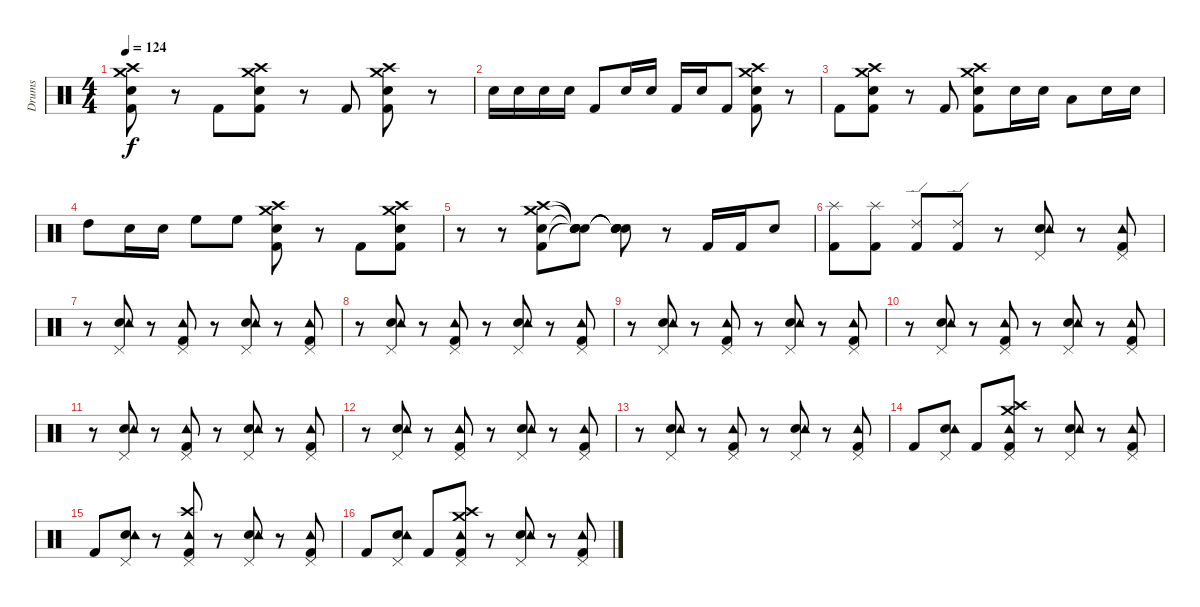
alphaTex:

\track ("Drums" "Drums") {instrument percussion}
\staff {score}
\articulation defaults
\ts (4 4)
\tempo 124
\clef neutral
\ks c
("Kick (hit) 2" "Snare (hit) 2" "Crash high (hit)" "Crash medium (hit)").8{dy f} r.8 "Kick (hit) 2".8 ("Kick (hit) 2" "Snare (hit) 2" "Crash high (hit)" "Crash medium (hit)").8 r.8 "Kick (hit) 2".8 ("Kick (hit) 2" "Snare (hit) 2" "Crash high (hit)" "Crash medium (hit)").8 r.8 |
"Snare (hit) 2".16 "Snare (hit) 2".16 "Snare (hit) 2".16 "Snare (hit) 2".16 "Kick (hit) 2".8 "Snare (hit) 2".16 "Snare (hit) 2".16 "Kick (hit) 2".16 "Snare (hit) 2".16 "Kick (hit) 2".8 ("Kick (hit) 2" "Snare (hit) 2" "Crash high (hit)" "Crash medium (hit)").8 r.8 |
"Kick (hit) 2".8 ("Kick (hit) 2" "Snare (hit) 2" "Crash high (hit)" "Crash medium (hit)").8 r.8 "Kick (hit) 2".8 ("Kick (hit) 2" "Snare (hit) 2" "Crash high (hit)" "Crash medium (hit)").8 "Snare (hit) 2".16 "Snare (hit) 2".16 "Low Tom (hit)".8 "Snare (hit) 2".16 "Snare (hit) 2".16 |
"High Tom (hit)".8 "Snare (hit) 2".16 "Snare (hit) 2".16 "High Floor Tom (hit)".8 "High Floor Tom (hit)".8 ("Kick (hit) 2" "Snare (hit) 2" "Crash high (hit)" "Crash medium (hit)").8 r.8 "Kick (hit) 2".8 ("Kick (hit) 2" "Snare (hit) 2" "Crash high (hit)" "Crash medium (hit)").8 |
r.8 r.8 ("Kick (hit) 2" "Snare (hit) 2" "Crash high (hit)" "Crash medium (hit)").8 ("Snare (hit)"{t} "Snare (hit)"{t} "Snare (hit)"{t} "Snare (hit)"{t}).8 ("Snare (hit)"{t} "Snare (hit)"{t} "Snare (hit)"{t} "Snare (hit)"{t}).8 r.8 "Kick (hit) 2".16 "Kick (hit) 2".16 "Snare (hit) 2".8 |
("Splash (hit)" "Kick (hit) 2").8 ("Splash (hit)" "Kick (hit) 2").8 ("Ride (edge) 2" "Kick (hit) 2").8 ("Ride (edge) 2" "Kick (hit) 2").8 r.8 ("Snare (hit) 2" "Tambourine (hit)" "Pedal Hi-Hat (hit)").8 r.8 ("Kick (hit) 2" "Tambourine (hit)" "Pedal Hi-Hat (hit)").8 |
r.8 ("Snare (hit) 2" "Tambourine (hit)" "Pedal Hi-Hat (hit)").8 r.8 ("Kick (hit) 2" "Tambourine (hit)" "Pedal Hi-Hat (hit)").8 r.8 ("Snare (hit) 2" "Tambourine (hit)" "Pedal Hi-Hat (hit)").8 r.8 ("Kick (hit) 2" "Tambourine (hit)" "Pedal Hi-Hat (hit)").8 |
r.8 ("Snare (hit) 2" "Tambourine (hit)" "Pedal Hi-Hat (hit)").8 r.8 ("Kick (hit) 2" "Tambourine (hit)" "Pedal Hi-Hat (hit)").8 r.8 ("Snare (hit) 2" "Tambourine (hit)" "Pedal Hi-Hat (hit)").8 r.8 ("Kick (hit) 2" "Tambourine (hit)" "Pedal Hi-Hat (hit)").8 |
r.8 ("Snare (hit) 2" "Tambourine (hit)" "Pedal Hi-Hat (hit)").8 r.8 ("Kick (hit) 2" "Tambourine (hit)" "Pedal Hi-Hat (hit)").8 r.8 ("Snare (hit) 2" "Tambourine (hit)" "Pedal Hi-Hat (hit)").8 r.8 ("Kick (hit) 2" "Tambourine (hit)" "Pedal Hi-Hat (hit)").8 |
r.8 ("Snare (hit) 2" "Tambourine (hit)" "Pedal Hi-Hat (hit)").8 r.8 ("Kick (hit) 2" "Tambourine (hit)" "Pedal Hi-Hat (hit)").8 r.8 ("Snare (hit) 2" "Tambourine (hit)" "Pedal Hi-Hat (hit)").8 r.8 ("Kick (hit) 2" "Tambourine (hit)" "Pedal Hi-Hat (hit)").8 |
r.8 ("Snare (hit) 2" "Tambourine (hit)" "Pedal Hi-Hat (hit)").8 r.8 ("Kick (hit) 2" "Tambourine (hit)" "Pedal Hi-Hat (hit)").8 r.8 ("Snare (hit) 2" "Tambourine (hit)" "Pedal Hi-Hat (hit)").8 r.8 ("Kick (hit) 2" "Tambourine (hit)" "Pedal Hi-Hat (hit)").8 |
r.8 ("Snare (hit) 2" "Tambourine (hit)" "Pedal Hi-Hat (hit)").8 r.8 ("Kick (hit) 2" "Tambourine (hit)" "Pedal Hi-Hat (hit)").8 r.8 ("Snare (hit) 2" "Tambourine (hit)" "Pedal Hi-Hat (hit)").8 r.8 ("Kick (hit) 2" "Tambourine (hit)" "Pedal Hi-Hat (hit)").8 |
r.8 ("Snare (hit) 2" "Tambourine (hit)" "Pedal Hi-Hat (hit)").8 r.8 ("Kick (hit) 2" "Tambourine (hit)" "Pedal Hi-Hat (hit)").8 r.8 ("Snare (hit) 2" "Tambourine (hit)" "Pedal Hi-Hat (hit)").8 r.8 ("Kick (hit) 2" "Tambourine (hit)" "Pedal Hi-Hat (hit)").8 |
"Kick (hit) 2".8 ("Snare (hit) 2" "Tambourine (hit)" "Pedal Hi-Hat (hit)").8 "Kick (hit) 2".8 ("Kick (hit) 2" "Tambourine (hit)" "Pedal Hi-Hat (hit)" "Crash high (hit)" "Crash medium (hit)").8 r.8 ("Snare (hit) 2" "Tambourine (hit)" "Pedal Hi-Hat (hit)").8 r.8 ("Kick (hit) 2" "Tambourine (hit)" "Pedal Hi-Hat (hit)").8 |
"Kick (hit) 2".8 ("Snare (hit) 2" "Tambourine (hit)" "Pedal Hi-Hat (hit)").8 r.8 ("Kick (hit) 2" "Tambourine (hit)" "Pedal Hi-Hat (hit)" "Crash high (hit)").8 r.8 ("Snare (hit) 2" "Tambourine (hit)" "Pedal Hi-Hat (hit)").8 r.8 ("Kick (hit) 2" "Tambourine (hit)" "Pedal Hi-Hat (hit)").8 |
"Kick (hit) 2".8 ("Snare (hit) 2" "Tambourine (hit)" "Pedal Hi-Hat (hit)").8 "Kick (hit) 2".8 ("Kick (hit) 2" "Tambourine (hit)" "Pedal Hi-Hat (hit)" "Crash high (hit)" "Crash medium (hit)").8 r.8 ("Snare (hit) 2" "Tambourine (hit)" "Pedal Hi-Hat (hit)").8 r.8 ("Kick (hit) 2" "Tambourine (hit)" "Pedal Hi-Hat (hit)").8
